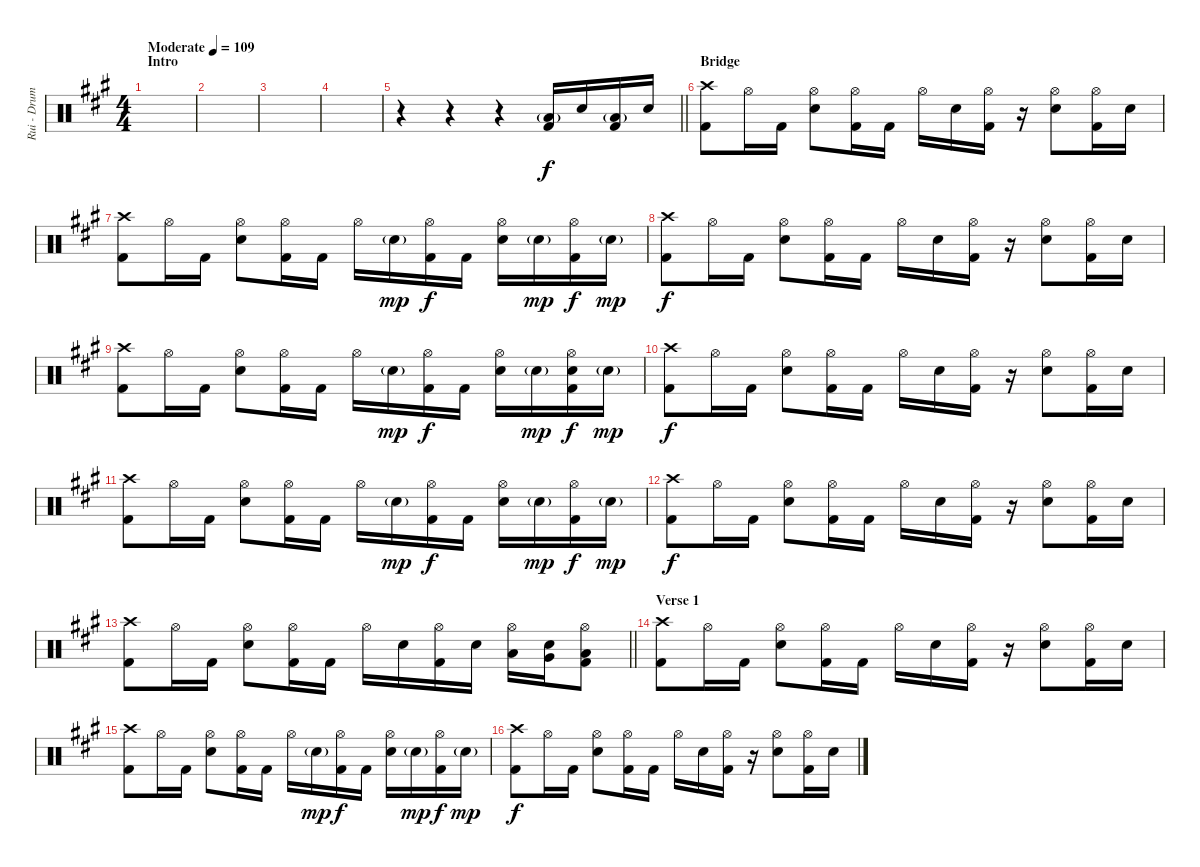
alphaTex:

\track ("Rui - Drums" "Rui - Drum") {instrument percussion}
\staff {score}
\articulation defaults
\ts (4 4)
\section ("" "Intro")
\tempo (109 "Moderate")
\clef neutral
\ks f#minor
|
|
|
|
\barLineRight lightlight
r.4 r.4 r.4 ("Kick (hit) 2" "Low Floor Tom (hit)"{g}).16 "Electric Snare (hit)".16 ("Kick (hit) 2" "Low Floor Tom (hit)"{g}).16 "Electric Snare (hit)".16 |
\section ("" "Bridge")
("Crash high (hit)" "Kick (hit) 2").8{dy f} "Hi-Hat (open)".16 "Kick (hit) 2".16 ("Hi-Hat (open)" "Electric Snare (hit)").8 ("Hi-Hat (open)" "Kick (hit) 2").16 "Kick (hit) 2".16 "Hi-Hat (open)".16 "Electric Snare (hit)".16 ("Hi-Hat (open)" "Kick (hit) 2").16 r.16 ("Hi-Hat (open)" "Electric Snare (hit)").8 ("Hi-Hat (open)" "Kick (hit) 2").16 "Electric Snare (hit)".16 |
("Crash high (hit)" "Kick (hit) 2").8 "Hi-Hat (open)".16 "Kick (hit) 2".16 ("Hi-Hat (open)" "Electric Snare (hit)").8 ("Hi-Hat (open)" "Kick (hit) 2").16 "Kick (hit) 2".16 "Hi-Hat (open)".16 "Electric Snare (hit)"{g}.16{dy mp} ("Hi-Hat (open)" "Kick (hit) 2").16{dy f} "Kick (hit) 2".16 ("Hi-Hat (open)" "Electric Snare (hit)").16 "Electric Snare (hit)"{g}.16{dy mp} ("Hi-Hat (open)" "Kick (hit) 2").16{dy f} "Electric Snare (hit)"{g}.16{dy mp} |
("Crash high (hit)" "Kick (hit) 2").8{dy f} "Hi-Hat (open)".16 "Kick (hit) 2".16 ("Hi-Hat (open)" "Electric Snare (hit)").8 ("Hi-Hat (open)" "Kick (hit) 2").16 "Kick (hit) 2".16 "Hi-Hat (open)".16 "Electric Snare (hit)".16 ("Hi-Hat (open)" "Kick (hit) 2").16 r.16 ("Hi-Hat (open)" "Electric Snare (hit)").8 ("Hi-Hat (open)" "Kick (hit) 2").16 "Electric Snare (hit)".16 |
("Crash high (hit)" "Kick (hit) 2").8 "Hi-Hat (open)".16 "Kick (hit) 2".16 ("Hi-Hat (open)" "Electric Snare (hit)").8 ("Hi-Hat (open)" "Kick (hit) 2").16 "Kick (hit) 2".16 "Hi-Hat (open)".16 "Electric Snare (hit)"{g}.16{dy mp} ("Hi-Hat (open)" "Kick (hit) 2").16{dy f} "Kick (hit) 2".16 ("Hi-Hat (open)" "Electric Snare (hit)").16 "Electric Snare (hit)"{g}.16{dy mp} ("Hi-Hat (open)" "Electric Snare (hit)" "Kick (hit) 2").16{dy f} "Electric Snare (hit)"{g}.16{dy mp} |
("Crash high (hit)" "Kick (hit) 2").8{dy f} "Hi-Hat (open)".16 "Kick (hit) 2".16 ("Hi-Hat (open)" "Electric Snare (hit)").8 ("Hi-Hat (open)" "Kick (hit) 2").16 "Kick (hit) 2".16 "Hi-Hat (open)".16 "Electric Snare (hit)".16 ("Hi-Hat (open)" "Kick (hit) 2").16 r.16 ("Hi-Hat (open)" "Electric Snare (hit)").8 ("Hi-Hat (open)" "Kick (hit) 2").16 "Electric Snare (hit)".16 |
("Crash high (hit)" "Kick (hit) 2").8 "Hi-Hat (open)".16 "Kick (hit) 2".16 ("Hi-Hat (open)" "Electric Snare (hit)").8 ("Hi-Hat (open)" "Kick (hit) 2").16 "Kick (hit) 2".16 "Hi-Hat (open)".16 "Electric Snare (hit)"{g}.16{dy mp} ("Hi-Hat (open)" "Kick (hit) 2").16{dy f} "Kick (hit) 2".16 ("Hi-Hat (open)" "Electric Snare (hit)").16 "Electric Snare (hit)"{g}.16{dy mp} ("Hi-Hat (open)" "Kick (hit) 2").16{dy f} "Electric Snare (hit)"{g}.16{dy mp} |
("Crash high (hit)" "Kick (hit) 2").8{dy f} "Hi-Hat (open)".16 "Kick (hit) 2".16 ("Hi-Hat (open)" "Electric Snare (hit)").8 ("Hi-Hat (open)" "Kick (hit) 2").16 "Kick (hit) 2".16 "Hi-Hat (open)".16 "Electric Snare (hit)".16 ("Hi-Hat (open)" "Kick (hit) 2").16 r.16 ("Hi-Hat (open)" "Electric Snare (hit)").8 ("Hi-Hat (open)" "Kick (hit) 2").16 "Electric Snare (hit)".16 |
\barLineRight lightlight
("Crash high (hit)" "Kick (hit) 2").8 "Hi-Hat (open)".16 "Kick (hit) 2".16 ("Hi-Hat (open)" "Electric Snare (hit)").8 ("Hi-Hat (open)" "Kick (hit) 2").16 "Kick (hit) 2".16 "Hi-Hat (open)".16 "Electric Snare (hit)".16 ("Hi-Hat (open)" "Kick (hit) 2").16 "Electric Snare (hit)".16 ("Hi-Hat (open)" "Low Tom (hit)").16 ("Very Low Tom (hit)" "Snare (hit) 2").16 ("Hi-Hat (open)" "Low Floor Tom (hit)" "Kick (hit) 2").8 |
\section ("" "Verse 1")
("Crash high (hit)" "Kick (hit) 2").8 "Hi-Hat (open)".16 "Kick (hit) 2".16 ("Hi-Hat (open)" "Electric Snare (hit)").8 ("Hi-Hat (open)" "Kick (hit) 2").16 "Kick (hit) 2".16 "Hi-Hat (open)".16 "Electric Snare (hit)".16 ("Hi-Hat (open)" "Kick (hit) 2").16 r.16 ("Hi-Hat (open)" "Electric Snare (hit)").8 ("Hi-Hat (open)" "Kick (hit) 2").16 "Electric Snare (hit)".16 |
("Crash high (hit)" "Kick (hit) 2").8 "Hi-Hat (open)".16 "Kick (hit) 2".16 ("Hi-Hat (open)" "Electric Snare (hit)").8 ("Hi-Hat (open)" "Kick (hit) 2").16 "Kick (hit) 2".16 "Hi-Hat (open)".16 "Electric Snare (hit)"{g}.16{dy mp} ("Hi-Hat (open)" "Kick (hit) 2").16{dy f} "Kick (hit) 2".16 ("Hi-Hat (open)" "Electric Snare (hit)").16 "Electric Snare (hit)"{g}.16{dy mp} ("Hi-Hat (open)" "Kick (hit) 2").16{dy f} "Electric Snare (hit)"{g}.16{dy mp} |
("Crash high (hit)" "Kick (hit) 2").8{dy f} "Hi-Hat (open)".16 "Kick (hit) 2".16 ("Hi-Hat (open)" "Electric Snare (hit)").8 ("Hi-Hat (open)" "Kick (hit) 2").16 "Kick (hit) 2".16 "Hi-Hat (open)".16 "Electric Snare (hit)".16 ("Hi-Hat (open)" "Kick (hit) 2").16 r.16 ("Hi-Hat (open)" "Electric Snare (hit)").8 ("Hi-Hat (open)" "Kick (hit) 2").16 "Electric Snare (hit)".16
